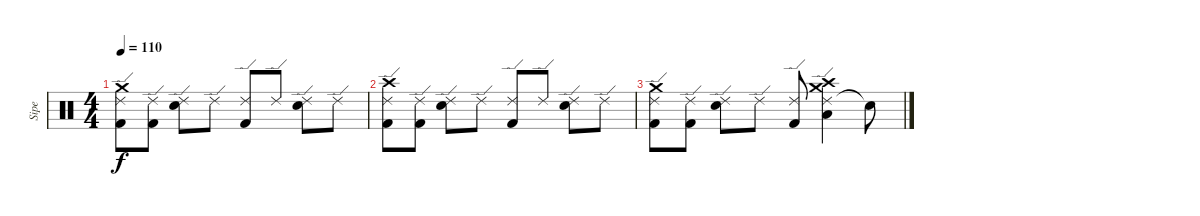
\track ("Sipe" "Sipe") {instrument percussion}
\staff {score}
\articulation defaults
\ts (4 4)
\tempo 110
\clef neutral
\ks c
("Ride (edge) 2" "Kick (hit) 2" "Crash medium (hit)").8{dy f} ("Ride (edge) 2" "Kick (hit) 2").8 ("Ride (edge) 2" "Snare (hit) 2").8 "Ride (edge) 2".8 ("Ride (edge) 2" "Kick (hit) 2").8 "Ride (edge) 2".8 ("Ride (edge) 2" "Snare (hit) 2").8 "Ride (edge) 2".8 |
("Ride (edge) 2" "Kick (hit) 2" "Crash high (hit)").8 ("Ride (edge) 2" "Kick (hit) 2").8 ("Ride (edge) 2" "Snare (hit) 2").8 "Ride (edge) 2".8 ("Ride (edge) 2" "Kick (hit) 2").8 "Ride (edge) 2".8 ("Ride (edge) 2" "Snare (hit) 2").8 "Ride (edge) 2".8 |
("Ride (edge) 2" "Kick (hit) 2" "Crash medium (hit)").8 ("Ride (edge) 2" "Kick (hit) 2").8 ("Ride (edge) 2" "Snare (hit) 2").8 "Ride (edge) 2".8 ("Ride (edge) 2" "Kick (hit) 2").8 ("Ride (edge) 2" "Low Tom (hit)" "Crash high (hit)" "Crash medium (hit)").4 "Snare (hit)"{t}.8
